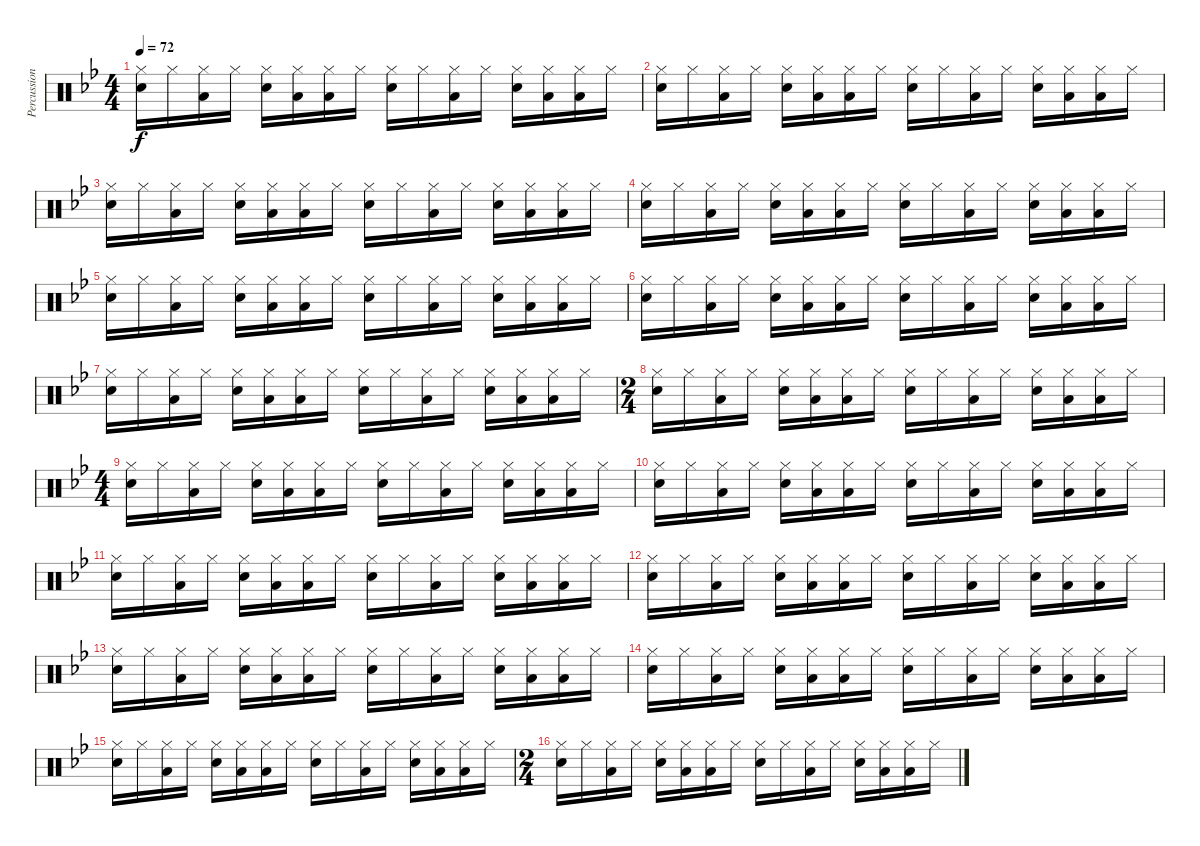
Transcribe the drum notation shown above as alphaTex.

\track ("Percussions" "Percussion") {instrument percussion}
\staff {score}
\articulation defaults
\ts (4 4)
\tempo 72
\clef neutral
\ks bb
("Hi-Hat (closed)" "Snare (hit) 2").16{dy f} "Hi-Hat (closed)".16 ("Hi-Hat (closed)" "Low Tom (hit)").16 "Hi-Hat (closed)".16 ("Hi-Hat (closed)" "Snare (hit) 2").16 ("Hi-Hat (closed)" "Low Tom (hit)").16 ("Hi-Hat (closed)" "Low Tom (hit)").16 "Hi-Hat (closed)".16 ("Hi-Hat (closed)" "Snare (hit) 2").16 "Hi-Hat (closed)".16 ("Hi-Hat (closed)" "Low Tom (hit)").16 "Hi-Hat (closed)".16 ("Hi-Hat (closed)" "Snare (hit) 2").16 ("Hi-Hat (closed)" "Low Tom (hit)").16 ("Hi-Hat (closed)" "Low Tom (hit)").16 "Hi-Hat (closed)".16 |
("Hi-Hat (closed)" "Snare (hit) 2").16 "Hi-Hat (closed)".16 ("Hi-Hat (closed)" "Low Tom (hit)").16 "Hi-Hat (closed)".16 ("Hi-Hat (closed)" "Snare (hit) 2").16 ("Hi-Hat (closed)" "Low Tom (hit)").16 ("Hi-Hat (closed)" "Low Tom (hit)").16 "Hi-Hat (closed)".16 ("Hi-Hat (closed)" "Snare (hit) 2").16 "Hi-Hat (closed)".16 ("Hi-Hat (closed)" "Low Tom (hit)").16 "Hi-Hat (closed)".16 ("Hi-Hat (closed)" "Snare (hit) 2").16 ("Hi-Hat (closed)" "Low Tom (hit)").16 ("Hi-Hat (closed)" "Low Tom (hit)").16 "Hi-Hat (closed)".16 |
("Hi-Hat (closed)" "Snare (hit) 2").16 "Hi-Hat (closed)".16 ("Hi-Hat (closed)" "Low Tom (hit)").16 "Hi-Hat (closed)".16 ("Hi-Hat (closed)" "Snare (hit) 2").16 ("Hi-Hat (closed)" "Low Tom (hit)").16 ("Hi-Hat (closed)" "Low Tom (hit)").16 "Hi-Hat (closed)".16 ("Hi-Hat (closed)" "Snare (hit) 2").16 "Hi-Hat (closed)".16 ("Hi-Hat (closed)" "Low Tom (hit)").16 "Hi-Hat (closed)".16 ("Hi-Hat (closed)" "Snare (hit) 2").16 ("Hi-Hat (closed)" "Low Tom (hit)").16 ("Hi-Hat (closed)" "Low Tom (hit)").16 "Hi-Hat (closed)".16 |
("Hi-Hat (closed)" "Snare (hit) 2").16 "Hi-Hat (closed)".16 ("Hi-Hat (closed)" "Low Tom (hit)").16 "Hi-Hat (closed)".16 ("Hi-Hat (closed)" "Snare (hit) 2").16 ("Hi-Hat (closed)" "Low Tom (hit)").16 ("Hi-Hat (closed)" "Low Tom (hit)").16 "Hi-Hat (closed)".16 ("Hi-Hat (closed)" "Snare (hit) 2").16 "Hi-Hat (closed)".16 ("Hi-Hat (closed)" "Low Tom (hit)").16 "Hi-Hat (closed)".16 ("Hi-Hat (closed)" "Snare (hit) 2").16 ("Hi-Hat (closed)" "Low Tom (hit)").16 ("Hi-Hat (closed)" "Low Tom (hit)").16 "Hi-Hat (closed)".16 |
("Hi-Hat (closed)" "Snare (hit) 2").16 "Hi-Hat (closed)".16 ("Hi-Hat (closed)" "Low Tom (hit)").16 "Hi-Hat (closed)".16 ("Hi-Hat (closed)" "Snare (hit) 2").16 ("Hi-Hat (closed)" "Low Tom (hit)").16 ("Hi-Hat (closed)" "Low Tom (hit)").16 "Hi-Hat (closed)".16 ("Hi-Hat (closed)" "Snare (hit) 2").16 "Hi-Hat (closed)".16 ("Hi-Hat (closed)" "Low Tom (hit)").16 "Hi-Hat (closed)".16 ("Hi-Hat (closed)" "Snare (hit) 2").16 ("Hi-Hat (closed)" "Low Tom (hit)").16 ("Hi-Hat (closed)" "Low Tom (hit)").16 "Hi-Hat (closed)".16 |
("Hi-Hat (closed)" "Snare (hit) 2").16 "Hi-Hat (closed)".16 ("Hi-Hat (closed)" "Low Tom (hit)").16 "Hi-Hat (closed)".16 ("Hi-Hat (closed)" "Snare (hit) 2").16 ("Hi-Hat (closed)" "Low Tom (hit)").16 ("Hi-Hat (closed)" "Low Tom (hit)").16 "Hi-Hat (closed)".16 ("Hi-Hat (closed)" "Snare (hit) 2").16 "Hi-Hat (closed)".16 ("Hi-Hat (closed)" "Low Tom (hit)").16 "Hi-Hat (closed)".16 ("Hi-Hat (closed)" "Snare (hit) 2").16 ("Hi-Hat (closed)" "Low Tom (hit)").16 ("Hi-Hat (closed)" "Low Tom (hit)").16 "Hi-Hat (closed)".16 |
("Hi-Hat (closed)" "Snare (hit) 2").16 "Hi-Hat (closed)".16 ("Hi-Hat (closed)" "Low Tom (hit)").16 "Hi-Hat (closed)".16 ("Hi-Hat (closed)" "Snare (hit) 2").16 ("Hi-Hat (closed)" "Low Tom (hit)").16 ("Hi-Hat (closed)" "Low Tom (hit)").16 "Hi-Hat (closed)".16 ("Hi-Hat (closed)" "Snare (hit) 2").16 "Hi-Hat (closed)".16 ("Hi-Hat (closed)" "Low Tom (hit)").16 "Hi-Hat (closed)".16 ("Hi-Hat (closed)" "Snare (hit) 2").16 ("Hi-Hat (closed)" "Low Tom (hit)").16 ("Hi-Hat (closed)" "Low Tom (hit)").16 "Hi-Hat (closed)".16 |
\ts (2 4)
("Hi-Hat (closed)" "Snare (hit) 2").16 "Hi-Hat (closed)".16 ("Hi-Hat (closed)" "Low Tom (hit)").16 "Hi-Hat (closed)".16 ("Hi-Hat (closed)" "Snare (hit) 2").16 ("Hi-Hat (closed)" "Low Tom (hit)").16 ("Hi-Hat (closed)" "Low Tom (hit)").16 "Hi-Hat (closed)".16 ("Hi-Hat (closed)" "Snare (hit) 2").16 "Hi-Hat (closed)".16 ("Hi-Hat (closed)" "Low Tom (hit)").16 "Hi-Hat (closed)".16 ("Hi-Hat (closed)" "Snare (hit) 2").16 ("Hi-Hat (closed)" "Low Tom (hit)").16 ("Hi-Hat (closed)" "Low Tom (hit)").16 "Hi-Hat (closed)".16 |
\ts (4 4)
("Hi-Hat (closed)" "Snare (hit) 2").16 "Hi-Hat (closed)".16 ("Hi-Hat (closed)" "Low Tom (hit)").16 "Hi-Hat (closed)".16 ("Hi-Hat (closed)" "Snare (hit) 2").16 ("Hi-Hat (closed)" "Low Tom (hit)").16 ("Hi-Hat (closed)" "Low Tom (hit)").16 "Hi-Hat (closed)".16 ("Hi-Hat (closed)" "Snare (hit) 2").16 "Hi-Hat (closed)".16 ("Hi-Hat (closed)" "Low Tom (hit)").16 "Hi-Hat (closed)".16 ("Hi-Hat (closed)" "Snare (hit) 2").16 ("Hi-Hat (closed)" "Low Tom (hit)").16 ("Hi-Hat (closed)" "Low Tom (hit)").16 "Hi-Hat (closed)".16 |
("Hi-Hat (closed)" "Snare (hit) 2").16 "Hi-Hat (closed)".16 ("Hi-Hat (closed)" "Low Tom (hit)").16 "Hi-Hat (closed)".16 ("Hi-Hat (closed)" "Snare (hit) 2").16 ("Hi-Hat (closed)" "Low Tom (hit)").16 ("Hi-Hat (closed)" "Low Tom (hit)").16 "Hi-Hat (closed)".16 ("Hi-Hat (closed)" "Snare (hit) 2").16 "Hi-Hat (closed)".16 ("Hi-Hat (closed)" "Low Tom (hit)").16 "Hi-Hat (closed)".16 ("Hi-Hat (closed)" "Snare (hit) 2").16 ("Hi-Hat (closed)" "Low Tom (hit)").16 ("Hi-Hat (closed)" "Low Tom (hit)").16 "Hi-Hat (closed)".16 |
("Hi-Hat (closed)" "Snare (hit) 2").16 "Hi-Hat (closed)".16 ("Hi-Hat (closed)" "Low Tom (hit)").16 "Hi-Hat (closed)".16 ("Hi-Hat (closed)" "Snare (hit) 2").16 ("Hi-Hat (closed)" "Low Tom (hit)").16 ("Hi-Hat (closed)" "Low Tom (hit)").16 "Hi-Hat (closed)".16 ("Hi-Hat (closed)" "Snare (hit) 2").16 "Hi-Hat (closed)".16 ("Hi-Hat (closed)" "Low Tom (hit)").16 "Hi-Hat (closed)".16 ("Hi-Hat (closed)" "Snare (hit) 2").16 ("Hi-Hat (closed)" "Low Tom (hit)").16 ("Hi-Hat (closed)" "Low Tom (hit)").16 "Hi-Hat (closed)".16 |
("Hi-Hat (closed)" "Snare (hit) 2").16 "Hi-Hat (closed)".16 ("Hi-Hat (closed)" "Low Tom (hit)").16 "Hi-Hat (closed)".16 ("Hi-Hat (closed)" "Snare (hit) 2").16 ("Hi-Hat (closed)" "Low Tom (hit)").16 ("Hi-Hat (closed)" "Low Tom (hit)").16 "Hi-Hat (closed)".16 ("Hi-Hat (closed)" "Snare (hit) 2").16 "Hi-Hat (closed)".16 ("Hi-Hat (closed)" "Low Tom (hit)").16 "Hi-Hat (closed)".16 ("Hi-Hat (closed)" "Snare (hit) 2").16 ("Hi-Hat (closed)" "Low Tom (hit)").16 ("Hi-Hat (closed)" "Low Tom (hit)").16 "Hi-Hat (closed)".16 |
("Hi-Hat (closed)" "Snare (hit) 2").16 "Hi-Hat (closed)".16 ("Hi-Hat (closed)" "Low Tom (hit)").16 "Hi-Hat (closed)".16 ("Hi-Hat (closed)" "Snare (hit) 2").16 ("Hi-Hat (closed)" "Low Tom (hit)").16 ("Hi-Hat (closed)" "Low Tom (hit)").16 "Hi-Hat (closed)".16 ("Hi-Hat (closed)" "Snare (hit) 2").16 "Hi-Hat (closed)".16 ("Hi-Hat (closed)" "Low Tom (hit)").16 "Hi-Hat (closed)".16 ("Hi-Hat (closed)" "Snare (hit) 2").16 ("Hi-Hat (closed)" "Low Tom (hit)").16 ("Hi-Hat (closed)" "Low Tom (hit)").16 "Hi-Hat (closed)".16 |
("Hi-Hat (closed)" "Snare (hit) 2").16 "Hi-Hat (closed)".16 ("Hi-Hat (closed)" "Low Tom (hit)").16 "Hi-Hat (closed)".16 ("Hi-Hat (closed)" "Snare (hit) 2").16 ("Hi-Hat (closed)" "Low Tom (hit)").16 ("Hi-Hat (closed)" "Low Tom (hit)").16 "Hi-Hat (closed)".16 ("Hi-Hat (closed)" "Snare (hit) 2").16 "Hi-Hat (closed)".16 ("Hi-Hat (closed)" "Low Tom (hit)").16 "Hi-Hat (closed)".16 ("Hi-Hat (closed)" "Snare (hit) 2").16 ("Hi-Hat (closed)" "Low Tom (hit)").16 ("Hi-Hat (closed)" "Low Tom (hit)").16 "Hi-Hat (closed)".16 |
("Hi-Hat (closed)" "Snare (hit) 2").16 "Hi-Hat (closed)".16 ("Hi-Hat (closed)" "Low Tom (hit)").16 "Hi-Hat (closed)".16 ("Hi-Hat (closed)" "Snare (hit) 2").16 ("Hi-Hat (closed)" "Low Tom (hit)").16 ("Hi-Hat (closed)" "Low Tom (hit)").16 "Hi-Hat (closed)".16 ("Hi-Hat (closed)" "Snare (hit) 2").16 "Hi-Hat (closed)".16 ("Hi-Hat (closed)" "Low Tom (hit)").16 "Hi-Hat (closed)".16 ("Hi-Hat (closed)" "Snare (hit) 2").16 ("Hi-Hat (closed)" "Low Tom (hit)").16 ("Hi-Hat (closed)" "Low Tom (hit)").16 "Hi-Hat (closed)".16 |
\ts (2 4)
("Hi-Hat (closed)" "Snare (hit) 2").16 "Hi-Hat (closed)".16 ("Hi-Hat (closed)" "Low Tom (hit)").16 "Hi-Hat (closed)".16 ("Hi-Hat (closed)" "Snare (hit) 2").16 ("Hi-Hat (closed)" "Low Tom (hit)").16 ("Hi-Hat (closed)" "Low Tom (hit)").16 "Hi-Hat (closed)".16 ("Hi-Hat (closed)" "Snare (hit) 2").16 "Hi-Hat (closed)".16 ("Hi-Hat (closed)" "Low Tom (hit)").16 "Hi-Hat (closed)".16 ("Hi-Hat (closed)" "Snare (hit) 2").16 ("Hi-Hat (closed)" "Low Tom (hit)").16 ("Hi-Hat (closed)" "Low Tom (hit)").16 "Hi-Hat (closed)".16
